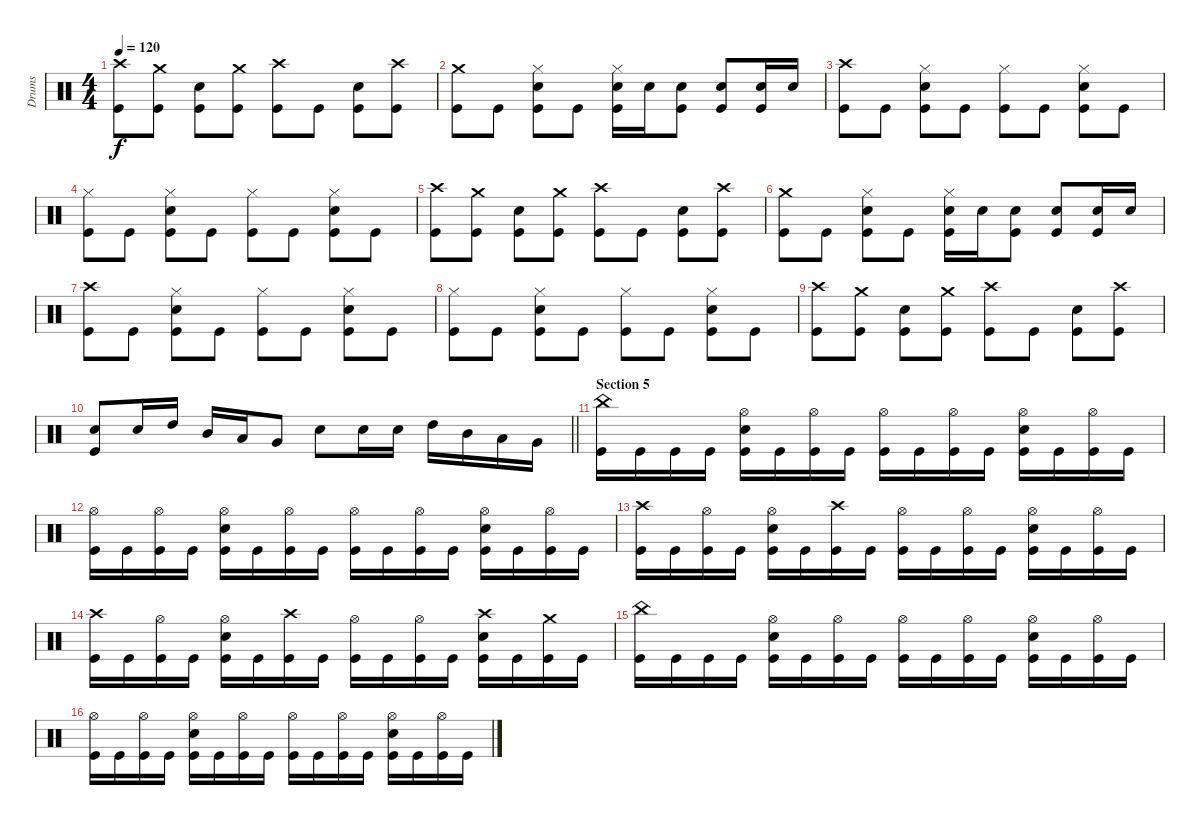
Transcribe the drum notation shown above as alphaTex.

\track ("Drums" "Drums") {instrument percussion}
\staff {score}
\articulation defaults
\ts (4 4)
\tempo 120
\clef neutral
\ks c
("Crash high (hit)" "Kick (hit)").8{dy f} ("Crash medium (hit)" "Kick (hit)").8 ("Snare (hit) 2" "Kick (hit)").8 ("Crash medium (hit)" "Kick (hit)").8 ("Crash high (hit)" "Kick (hit)").8 "Kick (hit)".8 ("Snare (hit) 2" "Kick (hit)").8 ("Crash high (hit)" "Kick (hit)").8 |
("Crash medium (hit)" "Kick (hit)").8 "Kick (hit)".8 ("Hi-Hat (closed)" "Snare (hit) 2" "Kick (hit)").8 "Kick (hit)".8 ("Hi-Hat (closed)" "Snare (hit) 2" "Kick (hit)").16 "Snare (hit) 2".16 ("Snare (hit) 2" "Kick (hit)").8 ("Snare (hit) 2" "Kick (hit)").8 ("Snare (hit) 2" "Kick (hit)").16 "Snare (hit) 2".16 |
("Crash high (hit)" "Kick (hit)").8 "Kick (hit)".8 ("Hi-Hat (closed)" "Snare (hit) 2" "Kick (hit)").8 "Kick (hit)".8 ("Hi-Hat (closed)" "Kick (hit)").8 "Kick (hit)".8 ("Hi-Hat (closed)" "Snare (hit) 2" "Kick (hit)").8 "Kick (hit)".8 |
("Hi-Hat (closed)" "Kick (hit)").8 "Kick (hit)".8 ("Hi-Hat (closed)" "Snare (hit) 2" "Kick (hit)").8 "Kick (hit)".8 ("Hi-Hat (closed)" "Kick (hit)").8 "Kick (hit)".8 ("Hi-Hat (closed)" "Snare (hit) 2" "Kick (hit)").8 "Kick (hit)".8 |
("Crash high (hit)" "Kick (hit)").8 ("Crash medium (hit)" "Kick (hit)").8 ("Snare (hit) 2" "Kick (hit)").8 ("Crash medium (hit)" "Kick (hit)").8 ("Crash high (hit)" "Kick (hit)").8 "Kick (hit)".8 ("Snare (hit) 2" "Kick (hit)").8 ("Crash high (hit)" "Kick (hit)").8 |
("Crash medium (hit)" "Kick (hit)").8 "Kick (hit)".8 ("Hi-Hat (closed)" "Snare (hit) 2" "Kick (hit)").8 "Kick (hit)".8 ("Hi-Hat (closed)" "Snare (hit) 2" "Kick (hit)").16 "Snare (hit) 2".16 ("Snare (hit) 2" "Kick (hit)").8 ("Snare (hit) 2" "Kick (hit)").8 ("Snare (hit) 2" "Kick (hit)").16 "Snare (hit) 2".16 |
("Crash high (hit)" "Kick (hit)").8 "Kick (hit)".8 ("Hi-Hat (closed)" "Snare (hit) 2" "Kick (hit)").8 "Kick (hit)".8 ("Hi-Hat (closed)" "Kick (hit)").8 "Kick (hit)".8 ("Hi-Hat (closed)" "Snare (hit) 2" "Kick (hit)").8 "Kick (hit)".8 |
("Hi-Hat (closed)" "Kick (hit)").8 "Kick (hit)".8 ("Hi-Hat (closed)" "Snare (hit) 2" "Kick (hit)").8 "Kick (hit)".8 ("Hi-Hat (closed)" "Kick (hit)").8 "Kick (hit)".8 ("Hi-Hat (closed)" "Snare (hit) 2" "Kick (hit)").8 "Kick (hit)".8 |
("Crash high (hit)" "Kick (hit)").8 ("Crash medium (hit)" "Kick (hit)").8 ("Snare (hit) 2" "Kick (hit)").8 ("Crash medium (hit)" "Kick (hit)").8 ("Crash high (hit)" "Kick (hit)").8 "Kick (hit)".8 ("Snare (hit) 2" "Kick (hit)").8 ("Crash high (hit)" "Kick (hit)").8 |
\barLineRight lightlight
("Snare (hit) 2" "Kick (hit)").8 "Snare (hit) 2".16 "High Tom (hit)".16 "Mid Tom (hit)".16 "Low Tom (hit)".16 "Very Low Tom (hit)".8 "Snare (hit) 2".8 "Snare (hit) 2".16 "Snare (hit) 2".16 "High Tom (hit)".16 "Mid Tom (hit)".16 "Low Tom (hit)".16 "Very Low Tom (hit)".16 |
\section ("" "Section 5")
("China (hit)" "Kick (hit)").16 "Kick (hit)".16 "Kick (hit)".16 "Kick (hit)".16 ("Hi-Hat (open)" "Snare (hit) 2" "Kick (hit)").16 "Kick (hit)".16 ("Hi-Hat (open)" "Kick (hit)").16 "Kick (hit)".16 ("Hi-Hat (open)" "Kick (hit)").16 "Kick (hit)".16 ("Hi-Hat (open)" "Kick (hit)").16 "Kick (hit)".16 ("Hi-Hat (open)" "Snare (hit) 2" "Kick (hit)").16 "Kick (hit)".16 ("Hi-Hat (open)" "Kick (hit)").16 "Kick (hit)".16 |
("Hi-Hat (open)" "Kick (hit)").16 "Kick (hit)".16 ("Hi-Hat (open)" "Kick (hit)").16 "Kick (hit)".16 ("Hi-Hat (open)" "Snare (hit) 2" "Kick (hit)").16 "Kick (hit)".16 ("Hi-Hat (open)" "Kick (hit)").16 "Kick (hit)".16 ("Hi-Hat (open)" "Kick (hit)").16 "Kick (hit)".16 ("Hi-Hat (open)" "Kick (hit)").16 "Kick (hit)".16 ("Hi-Hat (open)" "Snare (hit) 2" "Kick (hit)").16 "Kick (hit)".16 ("Hi-Hat (open)" "Kick (hit)").16 "Kick (hit)".16 |
("Crash high (hit)" "Kick (hit)").16 "Kick (hit)".16 ("Hi-Hat (open)" "Kick (hit)").16 "Kick (hit)".16 ("Hi-Hat (open)" "Snare (hit) 2" "Kick (hit)").16 "Kick (hit)".16 ("Crash high (hit)" "Kick (hit)").16 "Kick (hit)".16 ("Hi-Hat (open)" "Kick (hit)").16 "Kick (hit)".16 ("Hi-Hat (open)" "Kick (hit)").16 "Kick (hit)".16 ("Hi-Hat (open)" "Snare (hit) 2" "Kick (hit)").16 "Kick (hit)".16 ("Hi-Hat (open)" "Kick (hit)").16 "Kick (hit)".16 |
("Crash high (hit)" "Kick (hit)").16 "Kick (hit)".16 ("Hi-Hat (open)" "Kick (hit)").16 "Kick (hit)".16 ("Hi-Hat (open)" "Snare (hit) 2" "Kick (hit)").16 "Kick (hit)".16 ("Crash high (hit)" "Kick (hit)").16 "Kick (hit)".16 ("Hi-Hat (open)" "Kick (hit)").16 "Kick (hit)".16 ("Hi-Hat (open)" "Kick (hit)").16 "Kick (hit)".16 ("Crash high (hit)" "Snare (hit) 2" "Kick (hit)").16 "Kick (hit)".16 ("Crash medium (hit)" "Kick (hit)").16 "Kick (hit)".16 |
("China (hit)" "Kick (hit)").16 "Kick (hit)".16 "Kick (hit)".16 "Kick (hit)".16 ("Hi-Hat (open)" "Snare (hit) 2" "Kick (hit)").16 "Kick (hit)".16 ("Hi-Hat (open)" "Kick (hit)").16 "Kick (hit)".16 ("Hi-Hat (open)" "Kick (hit)").16 "Kick (hit)".16 ("Hi-Hat (open)" "Kick (hit)").16 "Kick (hit)".16 ("Hi-Hat (open)" "Snare (hit) 2" "Kick (hit)").16 "Kick (hit)".16 ("Hi-Hat (open)" "Kick (hit)").16 "Kick (hit)".16 |
("Hi-Hat (open)" "Kick (hit)").16 "Kick (hit)".16 ("Hi-Hat (open)" "Kick (hit)").16 "Kick (hit)".16 ("Hi-Hat (open)" "Snare (hit) 2" "Kick (hit)").16 "Kick (hit)".16 ("Hi-Hat (open)" "Kick (hit)").16 "Kick (hit)".16 ("Hi-Hat (open)" "Kick (hit)").16 "Kick (hit)".16 ("Hi-Hat (open)" "Kick (hit)").16 "Kick (hit)".16 ("Hi-Hat (open)" "Snare (hit) 2" "Kick (hit)").16 "Kick (hit)".16 ("Hi-Hat (open)" "Kick (hit)").16 "Kick (hit)".16
